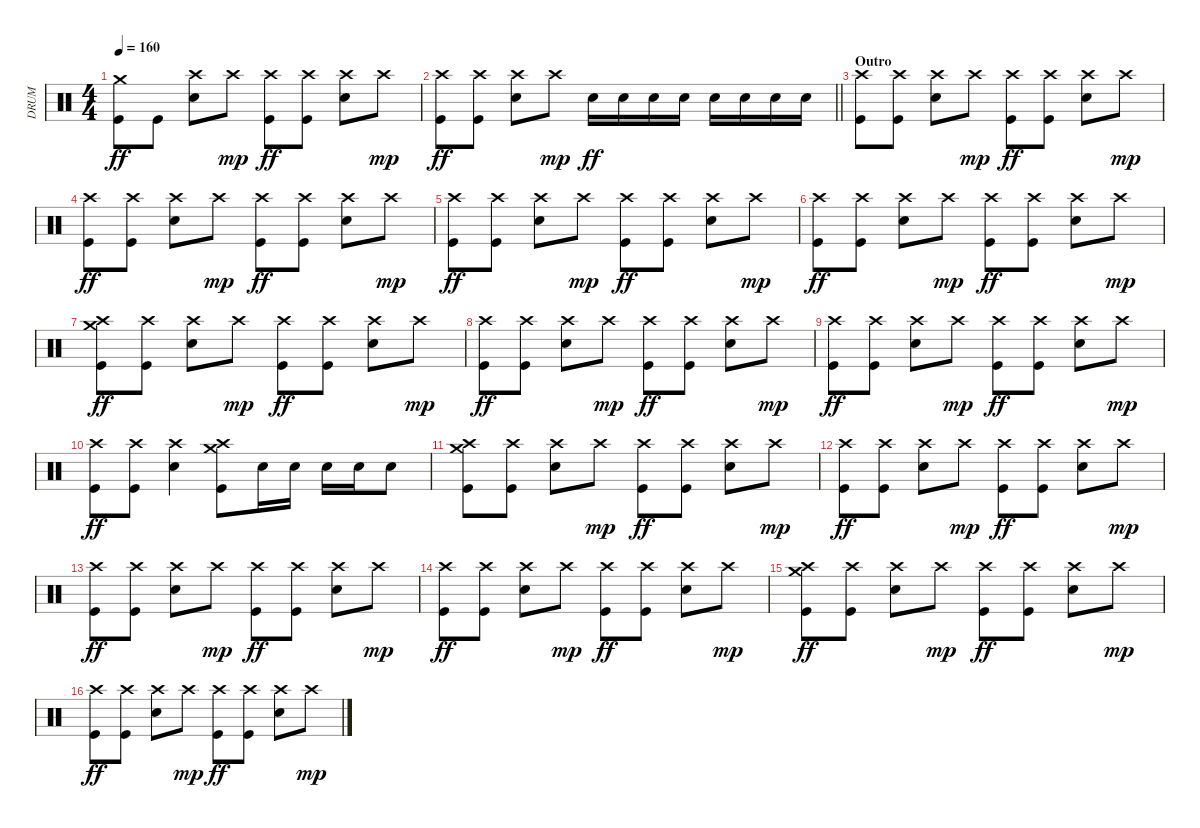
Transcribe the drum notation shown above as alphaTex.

\track ("DRUM" "DRUM") {instrument percussion}
\staff {score}
\articulation defaults
\ts (4 4)
\tempo 160
\clef neutral
\ks c
("Crash medium (hit)" "Kick (hit)").8{dy ff} "Kick (hit)".8 ("Crash high (hit)" "Electric Snare (hit)").8 "Crash high (hit)".8{dy mp} ("Crash high (hit)" "Kick (hit)").8{dy ff} ("Crash high (hit)" "Kick (hit)").8 ("Crash high (hit)" "Electric Snare (hit)").8 "Crash high (hit)".8{dy mp} |
\barLineRight lightlight
("Crash high (hit)" "Kick (hit)").8{dy ff} ("Crash high (hit)" "Kick (hit)").8 ("Crash high (hit)" "Electric Snare (hit)").8 "Crash high (hit)".8{dy mp} "Electric Snare (hit)".16{dy ff} "Electric Snare (hit)".16 "Electric Snare (hit)".16 "Electric Snare (hit)".16 "Electric Snare (hit)".16 "Electric Snare (hit)".16 "Electric Snare (hit)".16 "Electric Snare (hit)".16 |
\section ("" "Outro")
("Crash high (hit)" "Kick (hit)").8 ("Crash high (hit)" "Kick (hit)").8 ("Crash high (hit)" "Electric Snare (hit)").8 "Crash high (hit)".8{dy mp} ("Crash high (hit)" "Kick (hit)").8{dy ff} ("Crash high (hit)" "Kick (hit)").8 ("Crash high (hit)" "Electric Snare (hit)").8 "Crash high (hit)".8{dy mp} |
("Crash high (hit)" "Kick (hit)").8{dy ff} ("Crash high (hit)" "Kick (hit)").8 ("Crash high (hit)" "Electric Snare (hit)").8 "Crash high (hit)".8{dy mp} ("Crash high (hit)" "Kick (hit)").8{dy ff} ("Crash high (hit)" "Kick (hit)").8 ("Crash high (hit)" "Electric Snare (hit)").8 "Crash high (hit)".8{dy mp} |
("Crash high (hit)" "Kick (hit)").8{dy ff} ("Crash high (hit)" "Kick (hit)").8 ("Crash high (hit)" "Electric Snare (hit)").8 "Crash high (hit)".8{dy mp} ("Crash high (hit)" "Kick (hit)").8{dy ff} ("Crash high (hit)" "Kick (hit)").8 ("Crash high (hit)" "Electric Snare (hit)").8 "Crash high (hit)".8{dy mp} |
("Crash high (hit)" "Kick (hit)").8{dy ff} ("Crash high (hit)" "Kick (hit)").8 ("Crash high (hit)" "Electric Snare (hit)").8 "Crash high (hit)".8{dy mp} ("Crash high (hit)" "Kick (hit)").8{dy ff} ("Crash high (hit)" "Kick (hit)").8 ("Crash high (hit)" "Electric Snare (hit)").8 "Crash high (hit)".8{dy mp} |
("Crash high (hit)" "Crash medium (hit)" "Kick (hit)").8{dy ff} ("Crash high (hit)" "Kick (hit)").8 ("Crash high (hit)" "Electric Snare (hit)").8 "Crash high (hit)".8{dy mp} ("Crash high (hit)" "Kick (hit)").8{dy ff} ("Crash high (hit)" "Kick (hit)").8 ("Crash high (hit)" "Electric Snare (hit)").8 "Crash high (hit)".8{dy mp} |
("Crash high (hit)" "Kick (hit)").8{dy ff} ("Crash high (hit)" "Kick (hit)").8 ("Crash high (hit)" "Electric Snare (hit)").8 "Crash high (hit)".8{dy mp} ("Crash high (hit)" "Kick (hit)").8{dy ff} ("Crash high (hit)" "Kick (hit)").8 ("Crash high (hit)" "Electric Snare (hit)").8 "Crash high (hit)".8{dy mp} |
("Crash high (hit)" "Kick (hit)").8{dy ff} ("Crash high (hit)" "Kick (hit)").8 ("Crash high (hit)" "Electric Snare (hit)").8 "Crash high (hit)".8{dy mp} ("Crash high (hit)" "Kick (hit)").8{dy ff} ("Crash high (hit)" "Kick (hit)").8 ("Crash high (hit)" "Electric Snare (hit)").8 "Crash high (hit)".8{dy mp} |
("Crash high (hit)" "Kick (hit)").8{dy ff} ("Crash high (hit)" "Kick (hit)").8 ("Crash high (hit)" "Electric Snare (hit)").4 ("Crash high (hit)" "Crash medium (hit)" "Kick (hit)").8 "Electric Snare (hit)".16 "Electric Snare (hit)".16 "Electric Snare (hit)".16 "Electric Snare (hit)".16 "Electric Snare (hit)".8 |
("Crash high (hit)" "Crash medium (hit)" "Kick (hit)").8 ("Crash high (hit)" "Kick (hit)").8 ("Crash high (hit)" "Electric Snare (hit)").8 "Crash high (hit)".8{dy mp} ("Crash high (hit)" "Kick (hit)").8{dy ff} ("Crash high (hit)" "Kick (hit)").8 ("Crash high (hit)" "Electric Snare (hit)").8 "Crash high (hit)".8{dy mp} |
("Crash high (hit)" "Kick (hit)").8{dy ff} ("Crash high (hit)" "Kick (hit)").8 ("Crash high (hit)" "Electric Snare (hit)").8 "Crash high (hit)".8{dy mp} ("Crash high (hit)" "Kick (hit)").8{dy ff} ("Crash high (hit)" "Kick (hit)").8 ("Crash high (hit)" "Electric Snare (hit)").8 "Crash high (hit)".8{dy mp} |
("Crash high (hit)" "Kick (hit)").8{dy ff} ("Crash high (hit)" "Kick (hit)").8 ("Crash high (hit)" "Electric Snare (hit)").8 "Crash high (hit)".8{dy mp} ("Crash high (hit)" "Kick (hit)").8{dy ff} ("Crash high (hit)" "Kick (hit)").8 ("Crash high (hit)" "Electric Snare (hit)").8 "Crash high (hit)".8{dy mp} |
("Crash high (hit)" "Kick (hit)").8{dy ff} ("Crash high (hit)" "Kick (hit)").8 ("Crash high (hit)" "Electric Snare (hit)").8 "Crash high (hit)".8{dy mp} ("Crash high (hit)" "Kick (hit)").8{dy ff} ("Crash high (hit)" "Kick (hit)").8 ("Crash high (hit)" "Electric Snare (hit)").8 "Crash high (hit)".8{dy mp} |
("Crash high (hit)" "Crash medium (hit)" "Kick (hit)").8{dy ff} ("Crash high (hit)" "Kick (hit)").8 ("Crash high (hit)" "Electric Snare (hit)").8 "Crash high (hit)".8{dy mp} ("Crash high (hit)" "Kick (hit)").8{dy ff} ("Crash high (hit)" "Kick (hit)").8 ("Crash high (hit)" "Electric Snare (hit)").8 "Crash high (hit)".8{dy mp} |
("Crash high (hit)" "Kick (hit)").8{dy ff} ("Crash high (hit)" "Kick (hit)").8 ("Crash high (hit)" "Electric Snare (hit)").8 "Crash high (hit)".8{dy mp} ("Crash high (hit)" "Kick (hit)").8{dy ff} ("Crash high (hit)" "Kick (hit)").8 ("Crash high (hit)" "Electric Snare (hit)").8 "Crash high (hit)".8{dy mp}
